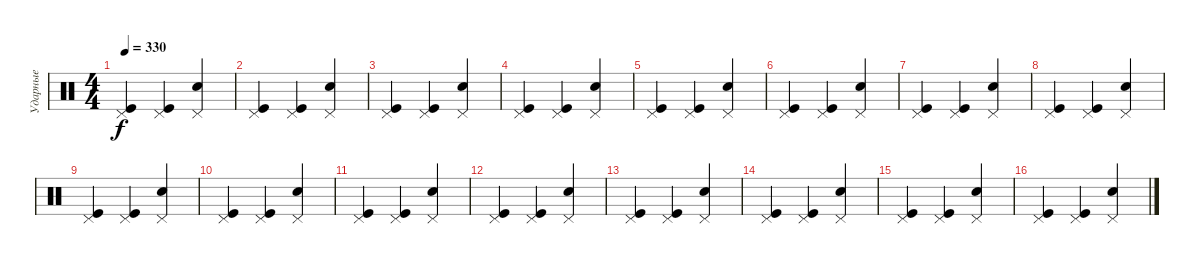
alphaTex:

\track ("Ударные" "Ударные") {instrument percussion}
\staff {score}
\articulation defaults
\ts (4 4)
\tempo 330
\clef neutral
\ks c
("Kick (hit)" "Pedal Hi-Hat (hit)").4{dy f} ("Kick (hit)" "Pedal Hi-Hat (hit)").4 ("Snare (hit) 2" "Pedal Hi-Hat (hit)").4 |
("Kick (hit)" "Pedal Hi-Hat (hit)").4 ("Kick (hit)" "Pedal Hi-Hat (hit)").4 ("Snare (hit) 2" "Pedal Hi-Hat (hit)").4 |
("Kick (hit)" "Pedal Hi-Hat (hit)").4 ("Kick (hit)" "Pedal Hi-Hat (hit)").4 ("Snare (hit) 2" "Pedal Hi-Hat (hit)").4 |
("Kick (hit)" "Pedal Hi-Hat (hit)").4 ("Kick (hit)" "Pedal Hi-Hat (hit)").4 ("Snare (hit) 2" "Pedal Hi-Hat (hit)").4 |
("Kick (hit)" "Pedal Hi-Hat (hit)").4 ("Kick (hit)" "Pedal Hi-Hat (hit)").4 ("Snare (hit) 2" "Pedal Hi-Hat (hit)").4 |
("Kick (hit)" "Pedal Hi-Hat (hit)").4 ("Kick (hit)" "Pedal Hi-Hat (hit)").4 ("Snare (hit) 2" "Pedal Hi-Hat (hit)").4 |
("Kick (hit)" "Pedal Hi-Hat (hit)").4 ("Kick (hit)" "Pedal Hi-Hat (hit)").4 ("Snare (hit) 2" "Pedal Hi-Hat (hit)").4 |
("Kick (hit)" "Pedal Hi-Hat (hit)").4 ("Kick (hit)" "Pedal Hi-Hat (hit)").4 ("Snare (hit) 2" "Pedal Hi-Hat (hit)").4 |
("Kick (hit)" "Pedal Hi-Hat (hit)").4 ("Kick (hit)" "Pedal Hi-Hat (hit)").4 ("Snare (hit) 2" "Pedal Hi-Hat (hit)").4 |
("Kick (hit)" "Pedal Hi-Hat (hit)").4 ("Kick (hit)" "Pedal Hi-Hat (hit)").4 ("Snare (hit) 2" "Pedal Hi-Hat (hit)").4 |
("Kick (hit)" "Pedal Hi-Hat (hit)").4 ("Kick (hit)" "Pedal Hi-Hat (hit)").4 ("Snare (hit) 2" "Pedal Hi-Hat (hit)").4 |
("Kick (hit)" "Pedal Hi-Hat (hit)").4 ("Kick (hit)" "Pedal Hi-Hat (hit)").4 ("Snare (hit) 2" "Pedal Hi-Hat (hit)").4 |
("Kick (hit)" "Pedal Hi-Hat (hit)").4 ("Kick (hit)" "Pedal Hi-Hat (hit)").4 ("Snare (hit) 2" "Pedal Hi-Hat (hit)").4 |
("Kick (hit)" "Pedal Hi-Hat (hit)").4 ("Kick (hit)" "Pedal Hi-Hat (hit)").4 ("Snare (hit) 2" "Pedal Hi-Hat (hit)").4 |
("Kick (hit)" "Pedal Hi-Hat (hit)").4 ("Kick (hit)" "Pedal Hi-Hat (hit)").4 ("Snare (hit) 2" "Pedal Hi-Hat (hit)").4 |
("Kick (hit)" "Pedal Hi-Hat (hit)").4 ("Kick (hit)" "Pedal Hi-Hat (hit)").4 ("Snare (hit) 2" "Pedal Hi-Hat (hit)").4
